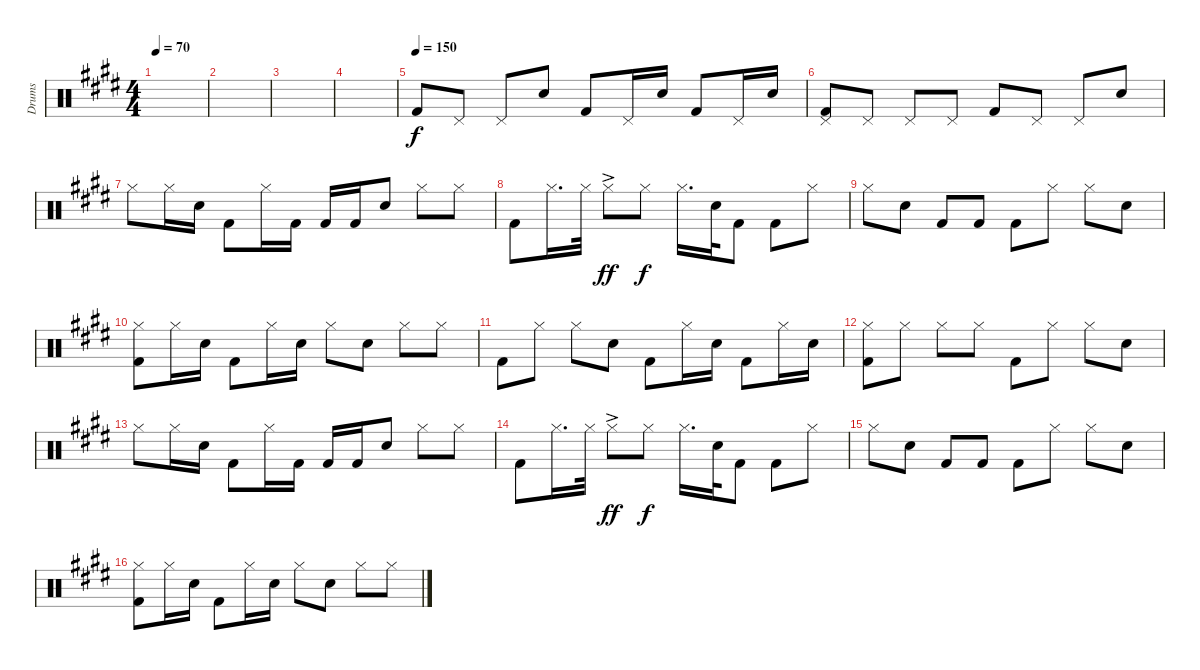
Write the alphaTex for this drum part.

\track ("Drums" "Drums") {instrument percussion bank 15}
\staff {score}
\articulation defaults
\ts (4 4)
\tempo 70
\clef neutral
\ks e
|
|
|
|
\tempo (150)
"Kick (hit) 2".8 "Pedal Hi-Hat (hit)".8 "Pedal Hi-Hat (hit)".8 "Snare (hit) 2".8 "Kick (hit) 2".8 "Pedal Hi-Hat (hit)".16 "Snare (hit) 2".16 "Kick (hit) 2".8 "Pedal Hi-Hat (hit)".16 "Snare (hit) 2".16 |
("Pedal Hi-Hat (hit)" "Kick (hit) 2").8 "Pedal Hi-Hat (hit)".8 "Pedal Hi-Hat (hit)".8 "Pedal Hi-Hat (hit)".8 "Kick (hit) 2".8 "Pedal Hi-Hat (hit)".8 "Pedal Hi-Hat (hit)".8 "Snare (hit) 2".8 |
"Hi-Hat (closed)".8 "Hi-Hat (closed)".16 "Snare (hit) 2".16 "Kick (hit) 2".8 "Hi-Hat (closed)".16 "Kick (hit) 2".16 "Kick (hit) 2".16 "Kick (hit) 2".16 "Snare (hit) 2".8 "Hi-Hat (closed)".8 "Hi-Hat (closed)".8 |
"Kick (hit) 2".8 "Hi-Hat (closed)".16{d} "Hi-Hat (closed)".32 "Hi-Hat (closed)"{ac}.8{dy ff} "Hi-Hat (closed)".8{dy f} "Hi-Hat (closed)".16{d} "Snare (hit) 2".32 "Kick (hit) 2".8 "Kick (hit) 2".8 "Hi-Hat (closed)".8 |
"Hi-Hat (closed)".8 "Snare (hit) 2".8 "Kick (hit) 2".8 "Kick (hit) 2".8 "Kick (hit) 2".8 "Hi-Hat (closed)".8 "Hi-Hat (closed)".8 "Snare (hit) 2".8 |
("Hi-Hat (closed)" "Kick (hit) 2").8 "Hi-Hat (closed)".16 "Snare (hit) 2".16 "Kick (hit) 2".8 "Hi-Hat (closed)".16 "Snare (hit) 2".16 "Hi-Hat (closed)".8 "Snare (hit) 2".8 "Hi-Hat (closed)".8 "Hi-Hat (closed)".8 |
"Kick (hit) 2".8 "Hi-Hat (closed)".8 "Hi-Hat (closed)".8 "Snare (hit) 2".8 "Kick (hit) 2".8 "Hi-Hat (closed)".16 "Snare (hit) 2".16 "Kick (hit) 2".8 "Hi-Hat (closed)".16 "Snare (hit) 2".16 |
("Hi-Hat (closed)" "Kick (hit) 2").8 "Hi-Hat (closed)".8 "Hi-Hat (closed)".8 "Hi-Hat (closed)".8 "Kick (hit) 2".8 "Hi-Hat (closed)".8 "Hi-Hat (closed)".8 "Snare (hit) 2".8 |
"Hi-Hat (closed)".8 "Hi-Hat (closed)".16 "Snare (hit) 2".16 "Kick (hit) 2".8 "Hi-Hat (closed)".16 "Kick (hit) 2".16 "Kick (hit) 2".16 "Kick (hit) 2".16 "Snare (hit) 2".8 "Hi-Hat (closed)".8 "Hi-Hat (closed)".8 |
"Kick (hit) 2".8 "Hi-Hat (closed)".16{d} "Hi-Hat (closed)".32 "Hi-Hat (closed)"{ac}.8{dy ff} "Hi-Hat (closed)".8{dy f} "Hi-Hat (closed)".16{d} "Snare (hit) 2".32 "Kick (hit) 2".8 "Kick (hit) 2".8 "Hi-Hat (closed)".8 |
"Hi-Hat (closed)".8 "Snare (hit) 2".8 "Kick (hit) 2".8 "Kick (hit) 2".8 "Kick (hit) 2".8 "Hi-Hat (closed)".8 "Hi-Hat (closed)".8 "Snare (hit) 2".8 |
("Hi-Hat (closed)" "Kick (hit) 2").8 "Hi-Hat (closed)".16 "Snare (hit) 2".16 "Kick (hit) 2".8 "Hi-Hat (closed)".16 "Snare (hit) 2".16 "Hi-Hat (closed)".8 "Snare (hit) 2".8 "Hi-Hat (closed)".8 "Hi-Hat (closed)".8
